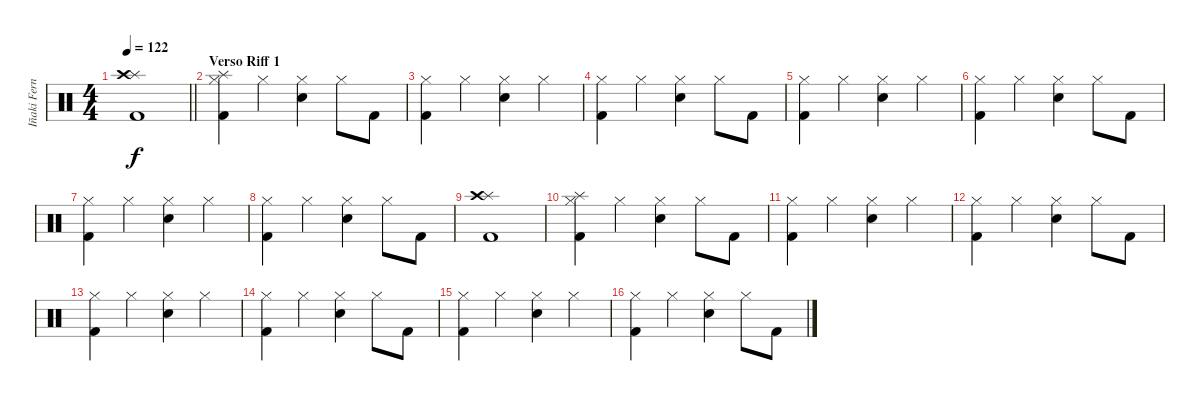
\track ("Iñaki Fernández" "Iñaki Fern") {instrument percussion}
\staff {score}
\articulation defaults
\ts (4 4)
\tempo 122
\clef neutral
\barLineRight lightlight
\ks c
("Splash (hit)" "Crash high (hit)" "Kick (hit) 2").1{dy f} |
\section ("" "Verso Riff 1")
("Hi-Hat (closed)" "Splash (hit)" "Kick (hit) 2").4 "Hi-Hat (closed)".4 ("Hi-Hat (closed)" "Snare (hit) 2").4 "Hi-Hat (closed)".8 "Kick (hit) 2".8 |
("Hi-Hat (closed)" "Kick (hit) 2").4 "Hi-Hat (closed)".4 ("Hi-Hat (closed)" "Snare (hit) 2").4 "Hi-Hat (closed)".4 |
("Hi-Hat (closed)" "Kick (hit) 2").4 "Hi-Hat (closed)".4 ("Hi-Hat (closed)" "Snare (hit) 2").4 "Hi-Hat (closed)".8 "Kick (hit) 2".8 |
("Hi-Hat (closed)" "Kick (hit) 2").4 "Hi-Hat (closed)".4 ("Hi-Hat (closed)" "Snare (hit) 2").4 "Hi-Hat (closed)".4 |
("Hi-Hat (closed)" "Kick (hit) 2").4 "Hi-Hat (closed)".4 ("Hi-Hat (closed)" "Snare (hit) 2").4 "Hi-Hat (closed)".8 "Kick (hit) 2".8 |
("Hi-Hat (closed)" "Kick (hit) 2").4 "Hi-Hat (closed)".4 ("Hi-Hat (closed)" "Snare (hit) 2").4 "Hi-Hat (closed)".4 |
("Hi-Hat (closed)" "Kick (hit) 2").4 "Hi-Hat (closed)".4 ("Hi-Hat (closed)" "Snare (hit) 2").4 "Hi-Hat (closed)".8 "Kick (hit) 2".8 |
("Splash (hit)" "Crash high (hit)" "Kick (hit) 2").1 |
("Hi-Hat (closed)" "Splash (hit)" "Kick (hit) 2").4 "Hi-Hat (closed)".4 ("Hi-Hat (closed)" "Snare (hit) 2").4 "Hi-Hat (closed)".8 "Kick (hit) 2".8 |
("Hi-Hat (closed)" "Kick (hit) 2").4 "Hi-Hat (closed)".4 ("Hi-Hat (closed)" "Snare (hit) 2").4 "Hi-Hat (closed)".4 |
("Hi-Hat (closed)" "Kick (hit) 2").4 "Hi-Hat (closed)".4 ("Hi-Hat (closed)" "Snare (hit) 2").4 "Hi-Hat (closed)".8 "Kick (hit) 2".8 |
("Hi-Hat (closed)" "Kick (hit) 2").4 "Hi-Hat (closed)".4 ("Hi-Hat (closed)" "Snare (hit) 2").4 "Hi-Hat (closed)".4 |
("Hi-Hat (closed)" "Kick (hit) 2").4 "Hi-Hat (closed)".4 ("Hi-Hat (closed)" "Snare (hit) 2").4 "Hi-Hat (closed)".8 "Kick (hit) 2".8 |
("Hi-Hat (closed)" "Kick (hit) 2").4 "Hi-Hat (closed)".4 ("Hi-Hat (closed)" "Snare (hit) 2").4 "Hi-Hat (closed)".4 |
("Hi-Hat (closed)" "Kick (hit) 2").4 "Hi-Hat (closed)".4 ("Hi-Hat (closed)" "Snare (hit) 2").4 "Hi-Hat (closed)".8 "Kick (hit) 2".8
